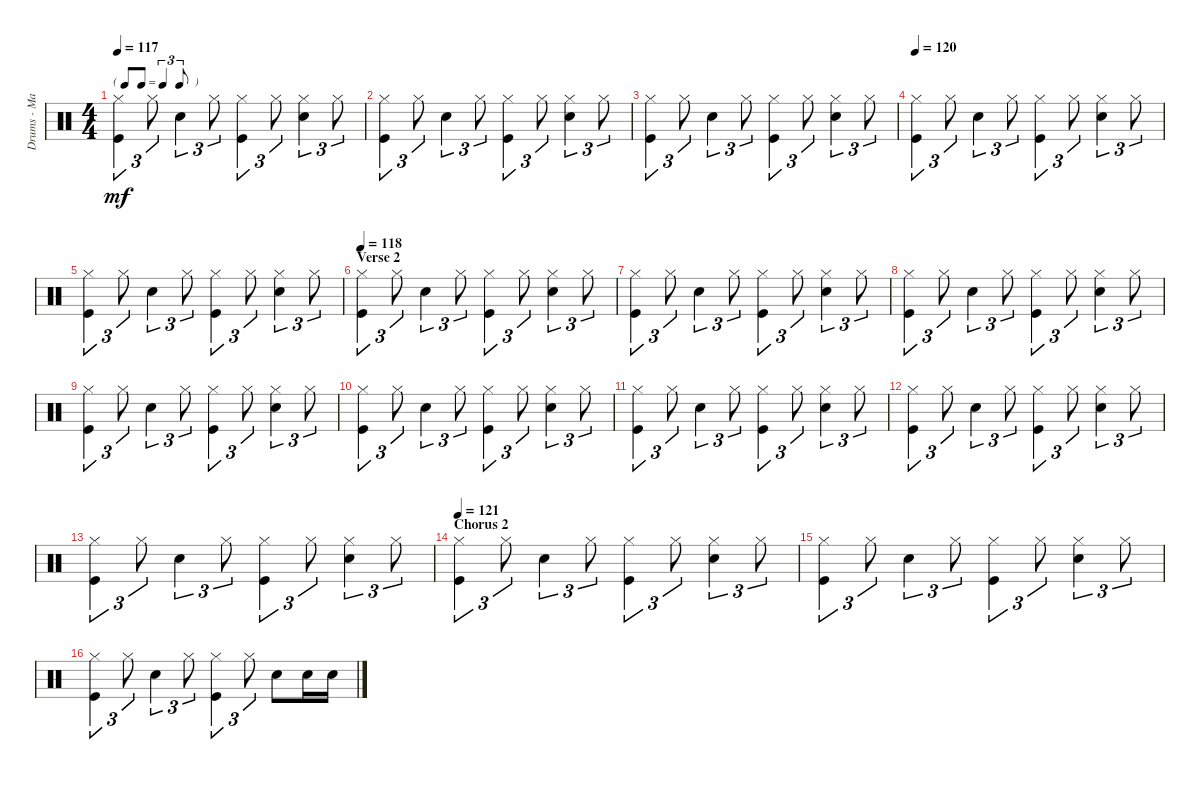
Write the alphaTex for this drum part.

\track ("Drums - Mason" "Drums - Ma") {instrument percussion}
\staff {score}
\articulation defaults
\ts (4 4)
\tf triplet8th
\tempo 117
\clef neutral
\ks c
("Hi-Hat (closed)" "Kick (hit)").4{tu (3 2) dy mf} "Hi-Hat (closed)".8{tu (3 2)} "Snare (hit) 2".4{tu (3 2)} "Hi-Hat (closed)".8{tu (3 2)} ("Hi-Hat (closed)" "Kick (hit)").4{tu (3 2)} "Hi-Hat (closed)".8{tu (3 2)} ("Hi-Hat (closed)" "Snare (hit) 2").4{tu (3 2)} "Hi-Hat (closed)".8{tu (3 2)} |
("Hi-Hat (closed)" "Kick (hit)").4{tu (3 2)} "Hi-Hat (closed)".8{tu (3 2)} "Snare (hit) 2".4{tu (3 2)} "Hi-Hat (closed)".8{tu (3 2)} ("Hi-Hat (closed)" "Kick (hit)").4{tu (3 2)} "Hi-Hat (closed)".8{tu (3 2)} ("Hi-Hat (closed)" "Snare (hit) 2").4{tu (3 2)} "Hi-Hat (closed)".8{tu (3 2)} |
("Hi-Hat (closed)" "Kick (hit)").4{tu (3 2)} "Hi-Hat (closed)".8{tu (3 2)} "Snare (hit) 2".4{tu (3 2)} "Hi-Hat (closed)".8{tu (3 2)} ("Hi-Hat (closed)" "Kick (hit)").4{tu (3 2)} "Hi-Hat (closed)".8{tu (3 2)} ("Hi-Hat (closed)" "Snare (hit) 2").4{tu (3 2)} "Hi-Hat (closed)".8{tu (3 2)} |
\tempo 120
("Hi-Hat (closed)" "Kick (hit)").4{tu (3 2)} "Hi-Hat (closed)".8{tu (3 2)} "Snare (hit) 2".4{tu (3 2)} "Hi-Hat (closed)".8{tu (3 2)} ("Hi-Hat (closed)" "Kick (hit)").4{tu (3 2)} "Hi-Hat (closed)".8{tu (3 2)} ("Hi-Hat (closed)" "Snare (hit) 2").4{tu (3 2)} "Hi-Hat (closed)".8{tu (3 2)} |
("Hi-Hat (closed)" "Kick (hit)").4{tu (3 2)} "Hi-Hat (closed)".8{tu (3 2)} "Snare (hit) 2".4{tu (3 2)} "Hi-Hat (closed)".8{tu (3 2)} ("Hi-Hat (closed)" "Kick (hit)").4{tu (3 2)} "Hi-Hat (closed)".8{tu (3 2)} ("Hi-Hat (closed)" "Snare (hit) 2").4{tu (3 2)} "Hi-Hat (closed)".8{tu (3 2)} |
\section ("" "Verse 2")
\tempo 118
("Hi-Hat (closed)" "Kick (hit)").4{tu (3 2)} "Hi-Hat (closed)".8{tu (3 2)} "Snare (hit) 2".4{tu (3 2)} "Hi-Hat (closed)".8{tu (3 2)} ("Hi-Hat (closed)" "Kick (hit)").4{tu (3 2)} "Hi-Hat (closed)".8{tu (3 2)} ("Hi-Hat (closed)" "Snare (hit) 2").4{tu (3 2)} "Hi-Hat (closed)".8{tu (3 2)} |
("Hi-Hat (closed)" "Kick (hit)").4{tu (3 2)} "Hi-Hat (closed)".8{tu (3 2)} "Snare (hit) 2".4{tu (3 2)} "Hi-Hat (closed)".8{tu (3 2)} ("Hi-Hat (closed)" "Kick (hit)").4{tu (3 2)} "Hi-Hat (closed)".8{tu (3 2)} ("Hi-Hat (closed)" "Snare (hit) 2").4{tu (3 2)} "Hi-Hat (closed)".8{tu (3 2)} |
("Hi-Hat (closed)" "Kick (hit)").4{tu (3 2)} "Hi-Hat (closed)".8{tu (3 2)} "Snare (hit) 2".4{tu (3 2)} "Hi-Hat (closed)".8{tu (3 2)} ("Hi-Hat (closed)" "Kick (hit)").4{tu (3 2)} "Hi-Hat (closed)".8{tu (3 2)} ("Hi-Hat (closed)" "Snare (hit) 2").4{tu (3 2)} "Hi-Hat (closed)".8{tu (3 2)} |
("Hi-Hat (closed)" "Kick (hit)").4{tu (3 2)} "Hi-Hat (closed)".8{tu (3 2)} "Snare (hit) 2".4{tu (3 2)} "Hi-Hat (closed)".8{tu (3 2)} ("Hi-Hat (closed)" "Kick (hit)").4{tu (3 2)} "Hi-Hat (closed)".8{tu (3 2)} ("Hi-Hat (closed)" "Snare (hit) 2").4{tu (3 2)} "Hi-Hat (closed)".8{tu (3 2)} |
("Hi-Hat (closed)" "Kick (hit)").4{tu (3 2)} "Hi-Hat (closed)".8{tu (3 2)} "Snare (hit) 2".4{tu (3 2)} "Hi-Hat (closed)".8{tu (3 2)} ("Hi-Hat (closed)" "Kick (hit)").4{tu (3 2)} "Hi-Hat (closed)".8{tu (3 2)} ("Hi-Hat (closed)" "Snare (hit) 2").4{tu (3 2)} "Hi-Hat (closed)".8{tu (3 2)} |
("Hi-Hat (closed)" "Kick (hit)").4{tu (3 2)} "Hi-Hat (closed)".8{tu (3 2)} "Snare (hit) 2".4{tu (3 2)} "Hi-Hat (closed)".8{tu (3 2)} ("Hi-Hat (closed)" "Kick (hit)").4{tu (3 2)} "Hi-Hat (closed)".8{tu (3 2)} ("Hi-Hat (closed)" "Snare (hit) 2").4{tu (3 2)} "Hi-Hat (closed)".8{tu (3 2)} |
("Hi-Hat (closed)" "Kick (hit)").4{tu (3 2)} "Hi-Hat (closed)".8{tu (3 2)} "Snare (hit) 2".4{tu (3 2)} "Hi-Hat (closed)".8{tu (3 2)} ("Hi-Hat (closed)" "Kick (hit)").4{tu (3 2)} "Hi-Hat (closed)".8{tu (3 2)} ("Hi-Hat (closed)" "Snare (hit) 2").4{tu (3 2)} "Hi-Hat (closed)".8{tu (3 2)} |
("Hi-Hat (closed)" "Kick (hit)").4{tu (3 2)} "Hi-Hat (closed)".8{tu (3 2)} "Snare (hit) 2".4{tu (3 2)} "Hi-Hat (closed)".8{tu (3 2)} ("Hi-Hat (closed)" "Kick (hit)").4{tu (3 2)} "Hi-Hat (closed)".8{tu (3 2)} ("Hi-Hat (closed)" "Snare (hit) 2").4{tu (3 2)} "Hi-Hat (closed)".8{tu (3 2)} |
\section ("" "Chorus 2")
\tempo 121
("Hi-Hat (closed)" "Kick (hit)").4{tu (3 2)} "Hi-Hat (closed)".8{tu (3 2)} "Snare (hit) 2".4{tu (3 2)} "Hi-Hat (closed)".8{tu (3 2)} ("Hi-Hat (closed)" "Kick (hit)").4{tu (3 2)} "Hi-Hat (closed)".8{tu (3 2)} ("Hi-Hat (closed)" "Snare (hit) 2").4{tu (3 2)} "Hi-Hat (closed)".8{tu (3 2)} |
("Hi-Hat (closed)" "Kick (hit)").4{tu (3 2)} "Hi-Hat (closed)".8{tu (3 2)} "Snare (hit) 2".4{tu (3 2)} "Hi-Hat (closed)".8{tu (3 2)} ("Hi-Hat (closed)" "Kick (hit)").4{tu (3 2)} "Hi-Hat (closed)".8{tu (3 2)} ("Hi-Hat (closed)" "Snare (hit) 2").4{tu (3 2)} "Hi-Hat (closed)".8{tu (3 2)} |
("Hi-Hat (closed)" "Kick (hit)").4{tu (3 2)} "Hi-Hat (closed)".8{tu (3 2)} "Snare (hit) 2".4{tu (3 2)} "Hi-Hat (closed)".8{tu (3 2)} ("Hi-Hat (closed)" "Kick (hit)").4{tu (3 2)} "Hi-Hat (closed)".8{tu (3 2)} "Snare (hit) 2".8 "Snare (hit) 2".16 "Snare (hit) 2".16
